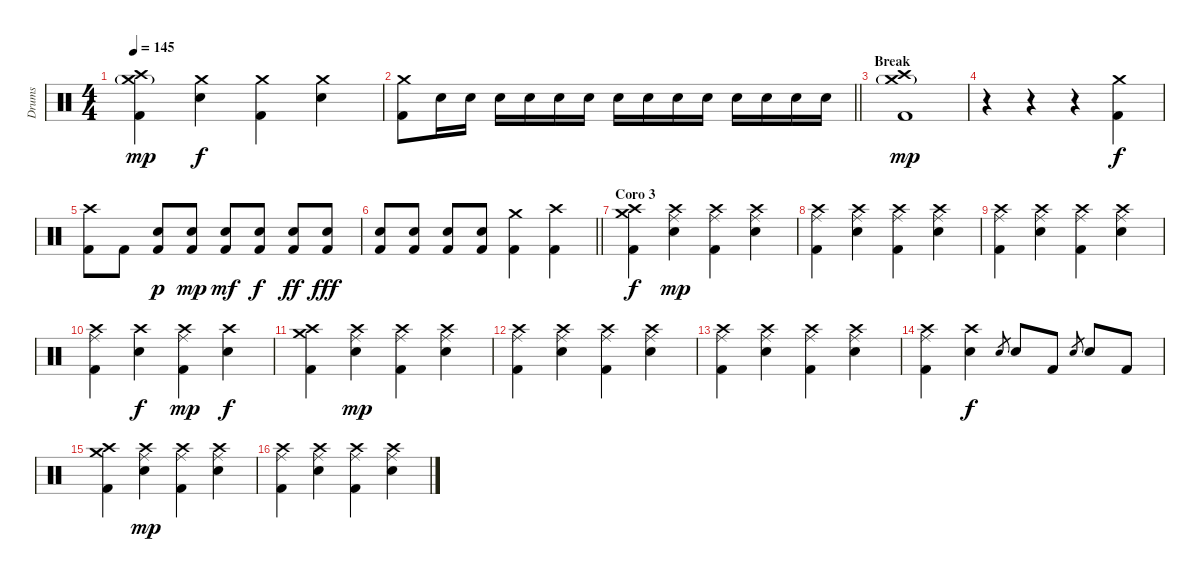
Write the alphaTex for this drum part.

\track ("Drums" "Drums") {instrument percussion}
\staff {score}
\articulation defaults
\ts (4 4)
\tempo 145
\clef neutral
\ks c
("Kick (hit) 2" "Crash medium (hit)"{g} "Crash high (hit)").4{dy mp} ("Electric Snare (hit)" "Crash medium (hit)").4{dy f} ("Kick (hit) 2" "Crash medium (hit)").4 ("Electric Snare (hit)" "Crash medium (hit)").4 |
\barLineRight lightlight
("Kick (hit) 2" "Crash medium (hit)").8 "Electric Snare (hit)".16 "Electric Snare (hit)".16 "Electric Snare (hit)".16 "Electric Snare (hit)".16 "Electric Snare (hit)".16 "Electric Snare (hit)".16 "Electric Snare (hit)".16 "Electric Snare (hit)".16 "Electric Snare (hit)".16 "Electric Snare (hit)".16 "Electric Snare (hit)".16 "Electric Snare (hit)".16 "Electric Snare (hit)".16 "Electric Snare (hit)".16 |
\section ("" "Break")
("Kick (hit) 2" "Crash medium (hit)"{g} "Crash high (hit)").1{dy mp} |
r.4 r.4 r.4 ("Kick (hit) 2" "Crash medium (hit)").4{dy f} |
("Kick (hit) 2" "Crash high (hit)").8 "Kick (hit) 2".8 ("Electric Snare (hit)" "Kick (hit) 2").8{dy p} ("Electric Snare (hit)" "Kick (hit) 2").8{dy mp} ("Electric Snare (hit)" "Kick (hit) 2").8{dy mf} ("Electric Snare (hit)" "Kick (hit) 2").8{dy f} ("Electric Snare (hit)" "Kick (hit) 2").8{dy ff} ("Electric Snare (hit)" "Kick (hit) 2").8{dy fff} |
\barLineRight lightlight
("Electric Snare (hit)" "Kick (hit) 2").8 ("Electric Snare (hit)" "Kick (hit) 2").8 ("Electric Snare (hit)" "Kick (hit) 2").8 ("Electric Snare (hit)" "Kick (hit) 2").8 ("Kick (hit) 2" "Crash medium (hit)").4 ("Kick (hit) 2" "Crash high (hit)").4 |
\section ("" "Coro 3")
("Kick (hit) 2" "Crash medium (hit)" "Crash high (hit)").4{dy f} ("Crash high (hit)" "Electric Snare (hit)" "Ride (middle)").4{dy mp} ("Crash high (hit)" "Kick (hit) 2" "Ride (middle)").4 ("Crash high (hit)" "Electric Snare (hit)" "Ride (middle)").4 |
("Crash high (hit)" "Kick (hit) 2" "Ride (middle)").4 ("Crash high (hit)" "Electric Snare (hit)" "Ride (middle)").4 ("Crash high (hit)" "Kick (hit) 2" "Ride (middle)").4 ("Crash high (hit)" "Electric Snare (hit)" "Ride (middle)").4 |
("Crash high (hit)" "Kick (hit) 2" "Ride (middle)").4 ("Crash high (hit)" "Electric Snare (hit)" "Ride (middle)").4 ("Crash high (hit)" "Kick (hit) 2" "Ride (middle)").4 ("Crash high (hit)" "Electric Snare (hit)" "Ride (middle)").4 |
("Crash high (hit)" "Kick (hit) 2" "Ride (middle)").4 ("Crash high (hit)" "Electric Snare (hit)").4{dy f} ("Crash high (hit)" "Kick (hit) 2" "Ride (middle)").4{dy mp} ("Crash high (hit)" "Electric Snare (hit)").4{dy f} |
("Kick (hit) 2" "Crash medium (hit)" "Crash high (hit)").4 ("Crash high (hit)" "Electric Snare (hit)" "Ride (middle)").4{dy mp} ("Crash high (hit)" "Kick (hit) 2" "Ride (middle)").4 ("Crash high (hit)" "Electric Snare (hit)" "Ride (middle)").4 |
("Crash high (hit)" "Kick (hit) 2" "Ride (middle)").4 ("Crash high (hit)" "Electric Snare (hit)" "Ride (middle)").4 ("Crash high (hit)" "Kick (hit) 2" "Ride (middle)").4 ("Crash high (hit)" "Electric Snare (hit)" "Ride (middle)").4 |
("Crash high (hit)" "Kick (hit) 2" "Ride (middle)").4 ("Crash high (hit)" "Electric Snare (hit)" "Ride (middle)").4 ("Crash high (hit)" "Kick (hit) 2" "Ride (middle)").4 ("Crash high (hit)" "Electric Snare (hit)" "Ride (middle)").4 |
("Crash high (hit)" "Kick (hit) 2" "Ride (middle)").4 ("Crash high (hit)" "Electric Snare (hit)").4{dy f} "Electric Snare (hit)"{x}.8{gr} "Electric Snare (hit)".8 "Kick (hit) 2".8 "Electric Snare (hit)"{x}.8{gr} "Electric Snare (hit)".8 "Kick (hit) 2".8 |
("Kick (hit) 2" "Crash medium (hit)" "Crash high (hit)").4 ("Crash high (hit)" "Electric Snare (hit)" "Ride (middle)").4{dy mp} ("Crash high (hit)" "Kick (hit) 2" "Ride (middle)").4 ("Crash high (hit)" "Electric Snare (hit)" "Ride (middle)").4 |
("Crash high (hit)" "Kick (hit) 2" "Ride (middle)").4 ("Crash high (hit)" "Electric Snare (hit)" "Ride (middle)").4 ("Crash high (hit)" "Kick (hit) 2" "Ride (middle)").4 ("Crash high (hit)" "Electric Snare (hit)" "Ride (middle)").4
